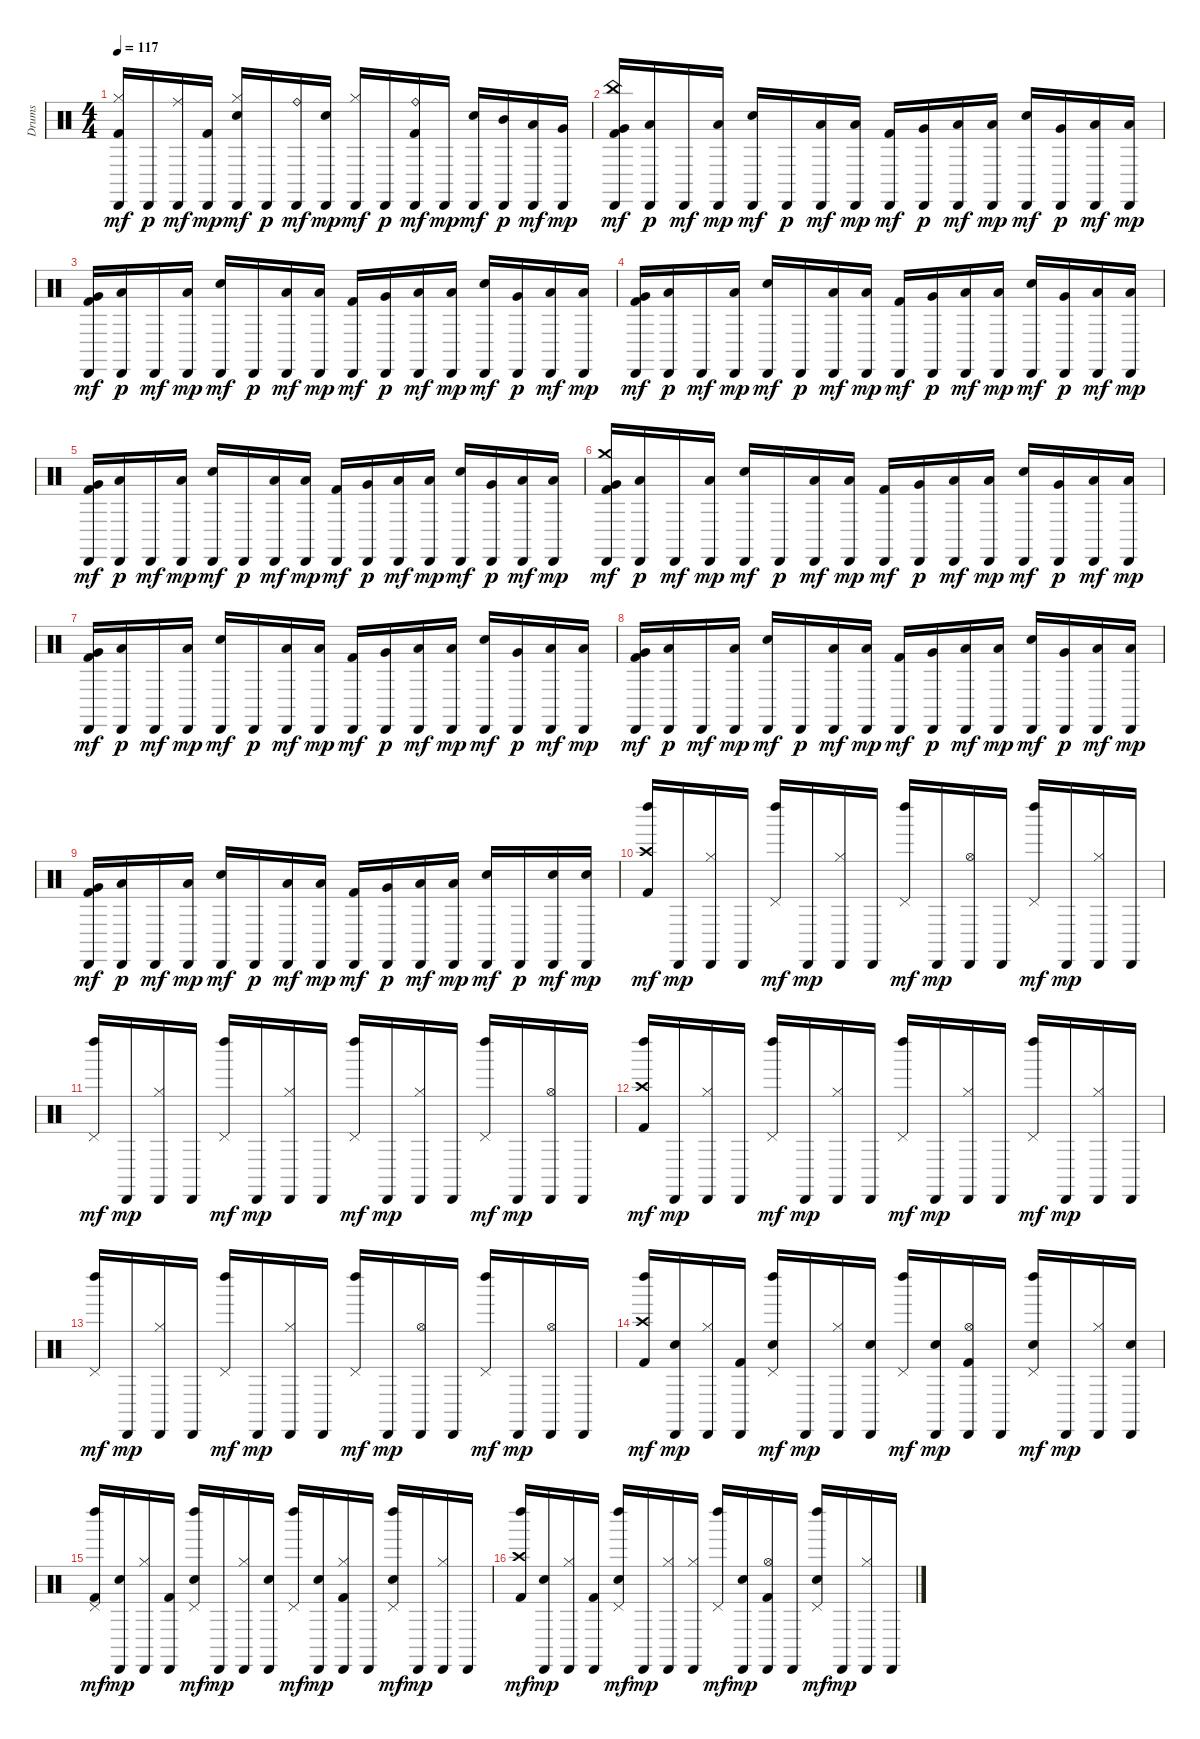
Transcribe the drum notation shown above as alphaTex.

\track ("Drums" "Drums") {instrument percussion}
\staff {score}
\articulation defaults
\ts (4 4)
\tempo 117
\clef neutral
\ks c
("Hi-Hat (closed)" "Kick (hit) 2" "Cabasa (hit)").16{dy mf} "Cabasa (hit)".16{dy p} ("Ride (middle)" "Cabasa (hit)").16{dy mf} ("Kick (hit) 2" "Cabasa (hit)").16{dy mp} ("Hi-Hat (closed)" "Snare (hit) 2" "Cabasa (hit)").16{dy mf} "Cabasa (hit)".16{dy p} ("Ride (bell)" "Cabasa (hit)").16{dy mf} ("Snare (hit) 2" "Cabasa (hit)").16{dy mp} ("Hi-Hat (closed)" "Cabasa (hit)").16{dy mf} "Cabasa (hit)".16{dy p} ("Ride (bell)" "Kick (hit) 2" "Cabasa (hit)").16{dy mf} "Cabasa (hit)".16{dy mp} ("Snare (hit) 2" "Cabasa (hit)").16{dy mf} ("Mid Tom (hit)" "Cabasa (hit)").16{dy p} ("Low Tom (hit)" "Cabasa (hit)").16{dy mf} ("Very Low Tom (hit)" "Cabasa (hit)").16{dy mp} |
("Kick (hit) 2" "Very Low Tom (hit)" "China (hit)" "Cabasa (hit)").16{dy mf} ("Low Floor Tom (hit)" "Cabasa (hit)").16{dy p} "Cabasa (hit)".16{dy mf} ("Low Floor Tom (hit)" "Cabasa (hit)").16{dy mp} ("Snare (hit) 2" "Cabasa (hit)").16{dy mf} "Cabasa (hit)".16{dy p} ("Low Floor Tom (hit)" "Cabasa (hit)").16{dy mf} ("Low Floor Tom (hit)" "Cabasa (hit)").16{dy mp} ("Kick (hit) 2" "Cabasa (hit)").16{dy mf} ("Very Low Tom (hit)" "Cabasa (hit)").16{dy p} ("Low Floor Tom (hit)" "Cabasa (hit)").16{dy mf} ("Low Floor Tom (hit)" "Cabasa (hit)").16{dy mp} ("Snare (hit) 2" "Cabasa (hit)").16{dy mf} ("Very Low Tom (hit)" "Cabasa (hit)").16{dy p} ("Low Floor Tom (hit)" "Cabasa (hit)").16{dy mf} ("Low Floor Tom (hit)" "Cabasa (hit)").16{dy mp} |
("Kick (hit) 2" "Very Low Tom (hit)" "Cabasa (hit)").16{dy mf} ("Low Floor Tom (hit)" "Cabasa (hit)").16{dy p} "Cabasa (hit)".16{dy mf} ("Low Floor Tom (hit)" "Cabasa (hit)").16{dy mp} ("Snare (hit) 2" "Cabasa (hit)").16{dy mf} "Cabasa (hit)".16{dy p} ("Low Floor Tom (hit)" "Cabasa (hit)").16{dy mf} ("Low Floor Tom (hit)" "Cabasa (hit)").16{dy mp} ("Kick (hit) 2" "Cabasa (hit)").16{dy mf} ("Very Low Tom (hit)" "Cabasa (hit)").16{dy p} ("Low Floor Tom (hit)" "Cabasa (hit)").16{dy mf} ("Low Floor Tom (hit)" "Cabasa (hit)").16{dy mp} ("Snare (hit) 2" "Cabasa (hit)").16{dy mf} ("Very Low Tom (hit)" "Cabasa (hit)").16{dy p} ("Low Floor Tom (hit)" "Cabasa (hit)").16{dy mf} ("Low Floor Tom (hit)" "Cabasa (hit)").16{dy mp} |
("Kick (hit) 2" "Very Low Tom (hit)" "Cabasa (hit)").16{dy mf} ("Low Floor Tom (hit)" "Cabasa (hit)").16{dy p} "Cabasa (hit)".16{dy mf} ("Low Floor Tom (hit)" "Cabasa (hit)").16{dy mp} ("Snare (hit) 2" "Cabasa (hit)").16{dy mf} "Cabasa (hit)".16{dy p} ("Low Floor Tom (hit)" "Cabasa (hit)").16{dy mf} ("Low Floor Tom (hit)" "Cabasa (hit)").16{dy mp} ("Kick (hit) 2" "Cabasa (hit)").16{dy mf} ("Very Low Tom (hit)" "Cabasa (hit)").16{dy p} ("Low Floor Tom (hit)" "Cabasa (hit)").16{dy mf} ("Low Floor Tom (hit)" "Cabasa (hit)").16{dy mp} ("Snare (hit) 2" "Cabasa (hit)").16{dy mf} ("Very Low Tom (hit)" "Cabasa (hit)").16{dy p} ("Low Floor Tom (hit)" "Cabasa (hit)").16{dy mf} ("Low Floor Tom (hit)" "Cabasa (hit)").16{dy mp} |
("Very Low Tom (hit)" "Kick (hit) 2" "Cabasa (hit)").16{dy mf} ("Low Floor Tom (hit)" "Cabasa (hit)").16{dy p} "Cabasa (hit)".16{dy mf} ("Low Floor Tom (hit)" "Cabasa (hit)").16{dy mp} ("Snare (hit) 2" "Cabasa (hit)").16{dy mf} "Cabasa (hit)".16{dy p} ("Low Floor Tom (hit)" "Cabasa (hit)").16{dy mf} ("Low Floor Tom (hit)" "Cabasa (hit)").16{dy mp} ("Kick (hit) 2" "Cabasa (hit)").16{dy mf} ("Very Low Tom (hit)" "Cabasa (hit)").16{dy p} ("Low Floor Tom (hit)" "Cabasa (hit)").16{dy mf} ("Low Floor Tom (hit)" "Cabasa (hit)").16{dy mp} ("Snare (hit) 2" "Cabasa (hit)").16{dy mf} ("Very Low Tom (hit)" "Cabasa (hit)").16{dy p} ("Low Floor Tom (hit)" "Cabasa (hit)").16{dy mf} ("Low Floor Tom (hit)" "Cabasa (hit)").16{dy mp} |
("Crash medium (hit)" "Kick (hit) 2" "Very Low Tom (hit)" "Cabasa (hit)").16{dy mf} ("Low Floor Tom (hit)" "Cabasa (hit)").16{dy p} "Cabasa (hit)".16{dy mf} ("Low Floor Tom (hit)" "Cabasa (hit)").16{dy mp} ("Snare (hit) 2" "Cabasa (hit)").16{dy mf} "Cabasa (hit)".16{dy p} ("Low Floor Tom (hit)" "Cabasa (hit)").16{dy mf} ("Low Floor Tom (hit)" "Cabasa (hit)").16{dy mp} ("Kick (hit) 2" "Cabasa (hit)").16{dy mf} ("Very Low Tom (hit)" "Cabasa (hit)").16{dy p} ("Low Floor Tom (hit)" "Cabasa (hit)").16{dy mf} ("Low Floor Tom (hit)" "Cabasa (hit)").16{dy mp} ("Snare (hit) 2" "Cabasa (hit)").16{dy mf} ("Very Low Tom (hit)" "Cabasa (hit)").16{dy p} ("Low Floor Tom (hit)" "Cabasa (hit)").16{dy mf} ("Low Floor Tom (hit)" "Cabasa (hit)").16{dy mp} |
("Very Low Tom (hit)" "Kick (hit) 2" "Cabasa (hit)").16{dy mf} ("Low Floor Tom (hit)" "Cabasa (hit)").16{dy p} "Cabasa (hit)".16{dy mf} ("Low Floor Tom (hit)" "Cabasa (hit)").16{dy mp} ("Snare (hit) 2" "Cabasa (hit)").16{dy mf} "Cabasa (hit)".16{dy p} ("Low Floor Tom (hit)" "Cabasa (hit)").16{dy mf} ("Low Floor Tom (hit)" "Cabasa (hit)").16{dy mp} ("Kick (hit) 2" "Cabasa (hit)").16{dy mf} ("Very Low Tom (hit)" "Cabasa (hit)").16{dy p} ("Low Floor Tom (hit)" "Cabasa (hit)").16{dy mf} ("Low Floor Tom (hit)" "Cabasa (hit)").16{dy mp} ("Snare (hit) 2" "Cabasa (hit)").16{dy mf} ("Very Low Tom (hit)" "Cabasa (hit)").16{dy p} ("Low Floor Tom (hit)" "Cabasa (hit)").16{dy mf} ("Low Floor Tom (hit)" "Cabasa (hit)").16{dy mp} |
("Very Low Tom (hit)" "Kick (hit) 2" "Cabasa (hit)").16{dy mf} ("Low Floor Tom (hit)" "Cabasa (hit)").16{dy p} "Cabasa (hit)".16{dy mf} ("Low Floor Tom (hit)" "Cabasa (hit)").16{dy mp} ("Snare (hit) 2" "Cabasa (hit)").16{dy mf} "Cabasa (hit)".16{dy p} ("Low Floor Tom (hit)" "Cabasa (hit)").16{dy mf} ("Low Floor Tom (hit)" "Cabasa (hit)").16{dy mp} ("Kick (hit) 2" "Cabasa (hit)").16{dy mf} ("Very Low Tom (hit)" "Cabasa (hit)").16{dy p} ("Low Floor Tom (hit)" "Cabasa (hit)").16{dy mf} ("Low Floor Tom (hit)" "Cabasa (hit)").16{dy mp} ("Snare (hit) 2" "Cabasa (hit)").16{dy mf} ("Very Low Tom (hit)" "Cabasa (hit)").16{dy p} ("Low Floor Tom (hit)" "Cabasa (hit)").16{dy mf} ("Low Floor Tom (hit)" "Cabasa (hit)").16{dy mp} |
("Very Low Tom (hit)" "Kick (hit) 2" "Cabasa (hit)").16{dy mf} ("Low Floor Tom (hit)" "Cabasa (hit)").16{dy p} "Cabasa (hit)".16{dy mf} ("Low Floor Tom (hit)" "Cabasa (hit)").16{dy mp} ("Snare (hit) 2" "Cabasa (hit)").16{dy mf} "Cabasa (hit)".16{dy p} ("Low Floor Tom (hit)" "Cabasa (hit)").16{dy mf} ("Low Floor Tom (hit)" "Cabasa (hit)").16{dy mp} ("Kick (hit) 2" "Cabasa (hit)").16{dy mf} ("Very Low Tom (hit)" "Cabasa (hit)").16{dy p} ("Low Floor Tom (hit)" "Cabasa (hit)").16{dy mf} ("Low Floor Tom (hit)" "Cabasa (hit)").16{dy mp} ("Snare (hit) 2" "Cabasa (hit)").16{dy mf} "Cabasa (hit)".16{dy p} ("Snare (hit) 2" "Cabasa (hit)").16{dy mf} ("Snare (hit) 2" "Cabasa (hit)").16{dy mp} |
("Crash high (hit)" "Kick (hit) 2" "Left Maraca (hit)").16{dy mf} "Cabasa (hit)".16{dy mp} ("Hi-Hat (closed)" "Cabasa (hit)").16 "Cabasa (hit)".16 ("Pedal Hi-Hat (hit)" "Left Maraca (hit)").16{dy mf} "Cabasa (hit)".16{dy mp} ("Hi-Hat (closed)" "Cabasa (hit)").16 "Cabasa (hit)".16 ("Pedal Hi-Hat (hit)" "Left Maraca (hit)").16{dy mf} "Cabasa (hit)".16{dy mp} ("Hi-Hat (open)" "Cabasa (hit)").16 "Cabasa (hit)".16 ("Pedal Hi-Hat (hit)" "Left Maraca (hit)").16{dy mf} "Cabasa (hit)".16{dy mp} ("Hi-Hat (closed)" "Cabasa (hit)").16 "Cabasa (hit)".16 |
("Pedal Hi-Hat (hit)" "Left Maraca (hit)").16{dy mf} "Cabasa (hit)".16{dy mp} ("Hi-Hat (closed)" "Cabasa (hit)").16 "Cabasa (hit)".16 ("Pedal Hi-Hat (hit)" "Left Maraca (hit)").16{dy mf} "Cabasa (hit)".16{dy mp} ("Hi-Hat (closed)" "Cabasa (hit)").16 "Cabasa (hit)".16 ("Pedal Hi-Hat (hit)" "Left Maraca (hit)").16{dy mf} "Cabasa (hit)".16{dy mp} ("Hi-Hat (closed)" "Cabasa (hit)").16 "Cabasa (hit)".16 ("Pedal Hi-Hat (hit)" "Left Maraca (hit)").16{dy mf} "Cabasa (hit)".16{dy mp} ("Hi-Hat (open)" "Cabasa (hit)").16 "Cabasa (hit)".16 |
("Crash high (hit)" "Kick (hit) 2" "Left Maraca (hit)").16{dy mf} "Cabasa (hit)".16{dy mp} ("Hi-Hat (closed)" "Cabasa (hit)").16 "Cabasa (hit)".16 ("Pedal Hi-Hat (hit)" "Left Maraca (hit)").16{dy mf} "Cabasa (hit)".16{dy mp} ("Hi-Hat (closed)" "Cabasa (hit)").16 "Cabasa (hit)".16 ("Pedal Hi-Hat (hit)" "Left Maraca (hit)").16{dy mf} "Cabasa (hit)".16{dy mp} ("Hi-Hat (closed)" "Cabasa (hit)").16 "Cabasa (hit)".16 ("Pedal Hi-Hat (hit)" "Left Maraca (hit)").16{dy mf} "Cabasa (hit)".16{dy mp} ("Hi-Hat (closed)" "Cabasa (hit)").16 "Cabasa (hit)".16 |
("Pedal Hi-Hat (hit)" "Left Maraca (hit)").16{dy mf} "Cabasa (hit)".16{dy mp} ("Hi-Hat (closed)" "Cabasa (hit)").16 "Cabasa (hit)".16 ("Pedal Hi-Hat (hit)" "Left Maraca (hit)").16{dy mf} "Cabasa (hit)".16{dy mp} ("Hi-Hat (closed)" "Cabasa (hit)").16 "Cabasa (hit)".16 ("Pedal Hi-Hat (hit)" "Left Maraca (hit)").16{dy mf} "Cabasa (hit)".16{dy mp} ("Hi-Hat (open)" "Cabasa (hit)").16 "Cabasa (hit)".16 ("Pedal Hi-Hat (hit)" "Left Maraca (hit)").16{dy mf} "Cabasa (hit)".16{dy mp} ("Hi-Hat (open)" "Cabasa (hit)").16 "Cabasa (hit)".16 |
("Crash high (hit)" "Kick (hit) 2" "Left Maraca (hit)").16{dy mf} ("Snare (hit) 2" "Cabasa (hit)").16{dy mp} ("Hi-Hat (closed)" "Cabasa (hit)").16 ("Kick (hit) 2" "Cabasa (hit)").16 ("Snare (hit) 2" "Pedal Hi-Hat (hit)" "Left Maraca (hit)").16{dy mf} "Cabasa (hit)".16{dy mp} ("Hi-Hat (closed)" "Cabasa (hit)").16 ("Snare (hit) 2" "Cabasa (hit)").16 ("Pedal Hi-Hat (hit)" "Left Maraca (hit)").16{dy mf} ("Snare (hit) 2" "Cabasa (hit)").16{dy mp} ("Kick (hit) 2" "Hi-Hat (open)" "Cabasa (hit)").16 "Cabasa (hit)".16 ("Snare (hit) 2" "Pedal Hi-Hat (hit)" "Left Maraca (hit)").16{dy mf} "Cabasa (hit)".16{dy mp} ("Hi-Hat (closed)" "Cabasa (hit)").16 ("Snare (hit) 2" "Cabasa (hit)").16 |
("Pedal Hi-Hat (hit)" "Kick (hit) 2" "Left Maraca (hit)").16{dy mf} ("Snare (hit) 2" "Cabasa (hit)").16{dy mp} ("Hi-Hat (closed)" "Cabasa (hit)").16 ("Kick (hit) 2" "Cabasa (hit)").16 ("Pedal Hi-Hat (hit)" "Snare (hit) 2" "Left Maraca (hit)").16{dy mf} "Cabasa (hit)".16{dy mp} ("Hi-Hat (closed)" "Cabasa (hit)").16 ("Snare (hit) 2" "Cabasa (hit)").16 ("Pedal Hi-Hat (hit)" "Left Maraca (hit)").16{dy mf} ("Snare (hit) 2" "Cabasa (hit)").16{dy mp} ("Hi-Hat (closed)" "Kick (hit) 2" "Cabasa (hit)").16 "Cabasa (hit)".16 ("Snare (hit) 2" "Pedal Hi-Hat (hit)" "Left Maraca (hit)").16{dy mf} "Cabasa (hit)".16{dy mp} ("Hi-Hat (closed)" "Cabasa (hit)").16 "Cabasa (hit)".16 |
("Crash high (hit)" "Kick (hit) 2" "Left Maraca (hit)").16{dy mf} ("Snare (hit) 2" "Cabasa (hit)").16{dy mp} ("Hi-Hat (closed)" "Cabasa (hit)").16 ("Kick (hit) 2" "Cabasa (hit)").16 ("Snare (hit) 2" "Pedal Hi-Hat (hit)" "Left Maraca (hit)").16{dy mf} "Cabasa (hit)".16{dy mp} ("Hi-Hat (closed)" "Cabasa (hit)").16 ("Hi-Hat (closed)" "Cabasa (hit)").16 ("Pedal Hi-Hat (hit)" "Left Maraca (hit)").16{dy mf} ("Snare (hit) 2" "Cabasa (hit)").16{dy mp} ("Hi-Hat (open)" "Kick (hit) 2" "Cabasa (hit)").16 "Cabasa (hit)".16 ("Snare (hit) 2" "Pedal Hi-Hat (hit)" "Left Maraca (hit)").16{dy mf} "Cabasa (hit)".16{dy mp} ("Hi-Hat (closed)" "Cabasa (hit)").16 "Cabasa (hit)".16
